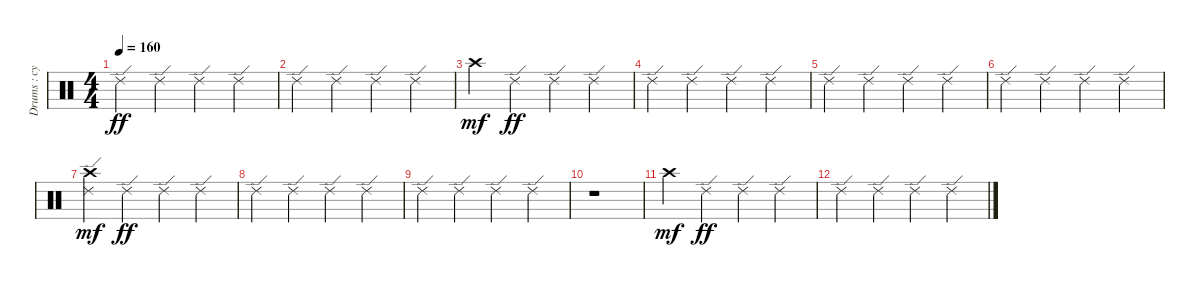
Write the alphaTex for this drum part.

\track ("Drums : cymbals" "Drums : cy") {instrument percussion}
\staff {score}
\articulation defaults
\ts (4 4)
\tempo 160
\clef neutral
\ks c "Ride (edge) 2".4{dy ff} "Ride (edge) 2".4 "Ride (edge) 2".4 "Ride (edge) 2".4
|
"Ride (edge) 2".4 "Ride (edge) 2".4 "Ride (edge) 2".4 "Ride (edge) 2".4 |
"Crash high (hit)".4{dy mf} "Ride (edge) 2".4{dy ff} "Ride (edge) 2".4 "Ride (edge) 2".4 |
"Ride (edge) 2".4 "Ride (edge) 2".4 "Ride (edge) 2".4 "Ride (edge) 2".4 |
"Ride (edge) 2".4{volume 0} "Ride (edge) 2".4 "Ride (edge) 2".4 "Ride (edge) 2".4 |
"Ride (edge) 2".4 "Ride (edge) 2".4 "Ride (edge) 2".4 "Ride (edge) 2".4 |
("Crash high (hit)" "Ride (edge) 2").4{dy mf} "Ride (edge) 2".4{dy ff} "Ride (edge) 2".4 "Ride (edge) 2".4 |
"Ride (edge) 2".4 "Ride (edge) 2".4 "Ride (edge) 2".4 "Ride (edge) 2".4 |
"Ride (edge) 2".4 "Ride (edge) 2".4 "Ride (edge) 2".4 "Ride (edge) 2".4 |
r.1 |
"Crash high (hit)".4{dy mf} "Ride (edge) 2".4{dy ff} "Ride (edge) 2".4 "Ride (edge) 2".4 |
"Ride (edge) 2".4 "Ride (edge) 2".4 "Ride (edge) 2".4 "Ride (edge) 2".4
